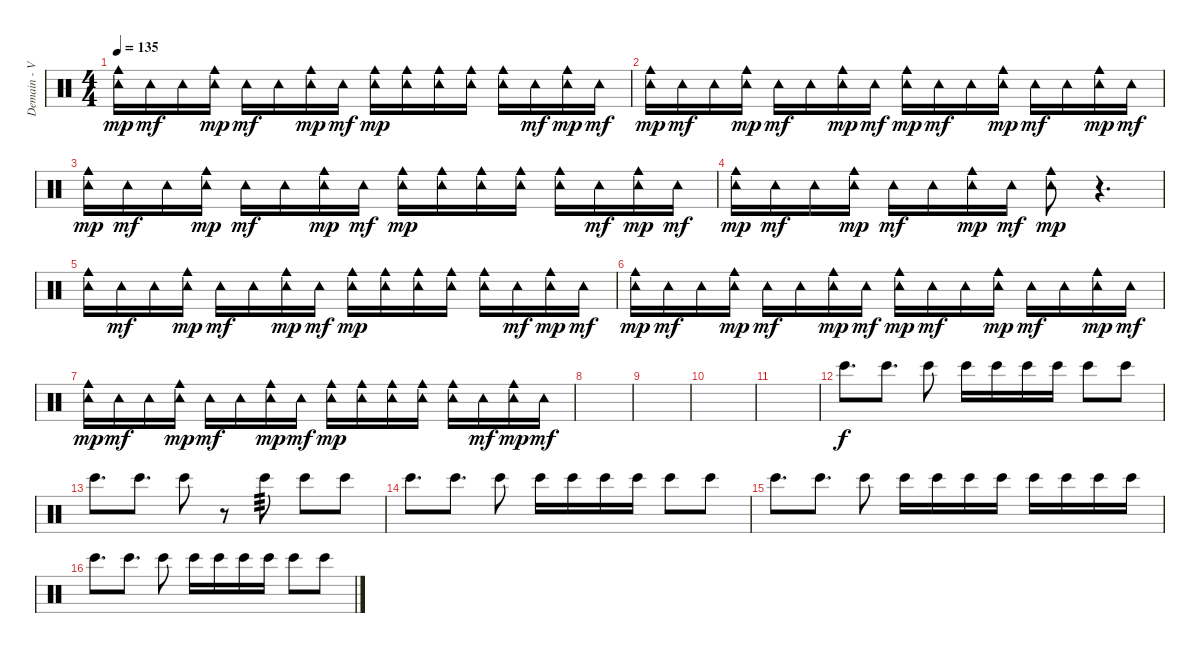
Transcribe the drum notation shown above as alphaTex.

\track ("Demain - Various Perc." "Demain - V") {instrument percussion}
\staff {score}
\articulation defaults
\ts (4 4)
\tempo 135
\clef neutral
\ks c
("Tambourine (hit)" "Cowbell medium (hit)").16{dy mp} "Tambourine (hit)".16{dy mf} "Tambourine (hit)".16 ("Tambourine (hit)" "Cowbell medium (hit)").16{dy mp} "Tambourine (hit)".16{dy mf} "Tambourine (hit)".16 ("Tambourine (hit)" "Cowbell medium (hit)").16{dy mp} "Tambourine (hit)".16{dy mf} ("Tambourine (hit)" "Cowbell medium (hit)").16{dy mp} ("Tambourine (hit)" "Cowbell medium (hit)").16 ("Tambourine (hit)" "Cowbell medium (hit)").16 ("Tambourine (hit)" "Cowbell medium (hit)").16 ("Tambourine (hit)" "Cowbell medium (hit)").16 "Tambourine (hit)".16{dy mf} ("Tambourine (hit)" "Cowbell medium (hit)").16{dy mp} "Tambourine (hit)".16{dy mf} |
("Tambourine (hit)" "Cowbell medium (hit)").16{dy mp} "Tambourine (hit)".16{dy mf} "Tambourine (hit)".16 ("Tambourine (hit)" "Cowbell medium (hit)").16{dy mp} "Tambourine (hit)".16{dy mf} "Tambourine (hit)".16 ("Tambourine (hit)" "Cowbell medium (hit)").16{dy mp} "Tambourine (hit)".16{dy mf} ("Tambourine (hit)" "Cowbell medium (hit)").16{dy mp} "Tambourine (hit)".16{dy mf} "Tambourine (hit)".16 ("Tambourine (hit)" "Cowbell medium (hit)").16{dy mp} "Tambourine (hit)".16{dy mf} "Tambourine (hit)".16 ("Tambourine (hit)" "Cowbell medium (hit)").16{dy mp} "Tambourine (hit)".16{dy mf} |
("Tambourine (hit)" "Cowbell medium (hit)").16{dy mp} "Tambourine (hit)".16{dy mf} "Tambourine (hit)".16 ("Tambourine (hit)" "Cowbell medium (hit)").16{dy mp} "Tambourine (hit)".16{dy mf} "Tambourine (hit)".16 ("Tambourine (hit)" "Cowbell medium (hit)").16{dy mp} "Tambourine (hit)".16{dy mf} ("Tambourine (hit)" "Cowbell medium (hit)").16{dy mp} ("Tambourine (hit)" "Cowbell medium (hit)").16 ("Tambourine (hit)" "Cowbell medium (hit)").16 ("Tambourine (hit)" "Cowbell medium (hit)").16 ("Tambourine (hit)" "Cowbell medium (hit)").16 "Tambourine (hit)".16{dy mf} ("Tambourine (hit)" "Cowbell medium (hit)").16{dy mp} "Tambourine (hit)".16{dy mf} |
("Tambourine (hit)" "Cowbell medium (hit)").16{dy mp} "Tambourine (hit)".16{dy mf} "Tambourine (hit)".16 ("Tambourine (hit)" "Cowbell medium (hit)").16{dy mp} "Tambourine (hit)".16{dy mf} "Tambourine (hit)".16 ("Tambourine (hit)" "Cowbell medium (hit)").16{dy mp} "Tambourine (hit)".16{dy mf} ("Tambourine (hit)" "Cowbell medium (hit)").8{dy mp} r.4{d} |
("Tambourine (hit)" "Cowbell medium (hit)").16 "Tambourine (hit)".16{dy mf} "Tambourine (hit)".16 ("Tambourine (hit)" "Cowbell medium (hit)").16{dy mp} "Tambourine (hit)".16{dy mf} "Tambourine (hit)".16 ("Tambourine (hit)" "Cowbell medium (hit)").16{dy mp} "Tambourine (hit)".16{dy mf} ("Tambourine (hit)" "Cowbell medium (hit)").16{dy mp} ("Tambourine (hit)" "Cowbell medium (hit)").16 ("Tambourine (hit)" "Cowbell medium (hit)").16 ("Tambourine (hit)" "Cowbell medium (hit)").16 ("Tambourine (hit)" "Cowbell medium (hit)").16 "Tambourine (hit)".16{dy mf} ("Tambourine (hit)" "Cowbell medium (hit)").16{dy mp} "Tambourine (hit)".16{dy mf} |
("Tambourine (hit)" "Cowbell medium (hit)").16{dy mp} "Tambourine (hit)".16{dy mf} "Tambourine (hit)".16 ("Tambourine (hit)" "Cowbell medium (hit)").16{dy mp} "Tambourine (hit)".16{dy mf} "Tambourine (hit)".16 ("Tambourine (hit)" "Cowbell medium (hit)").16{dy mp} "Tambourine (hit)".16{dy mf} ("Tambourine (hit)" "Cowbell medium (hit)").16{dy mp} "Tambourine (hit)".16{dy mf} "Tambourine (hit)".16 ("Tambourine (hit)" "Cowbell medium (hit)").16{dy mp} "Tambourine (hit)".16{dy mf} "Tambourine (hit)".16 ("Tambourine (hit)" "Cowbell medium (hit)").16{dy mp} "Tambourine (hit)".16{dy mf} |
("Tambourine (hit)" "Cowbell medium (hit)").16{dy mp} "Tambourine (hit)".16{dy mf} "Tambourine (hit)".16 ("Tambourine (hit)" "Cowbell medium (hit)").16{dy mp} "Tambourine (hit)".16{dy mf} "Tambourine (hit)".16 ("Tambourine (hit)" "Cowbell medium (hit)").16{dy mp} "Tambourine (hit)".16{dy mf} ("Tambourine (hit)" "Cowbell medium (hit)").16{dy mp} ("Tambourine (hit)" "Cowbell medium (hit)").16 ("Tambourine (hit)" "Cowbell medium (hit)").16 ("Tambourine (hit)" "Cowbell medium (hit)").16 ("Tambourine (hit)" "Cowbell medium (hit)").16 "Tambourine (hit)".16{dy mf} ("Tambourine (hit)" "Cowbell medium (hit)").16{dy mp} "Tambourine (hit)".16{dy mf} |
|
|
|
|
"Bongo High (hit)".8{d dy f} "Bongo High (hit)".8{d} "Bongo High (hit)".8 "Bongo High (hit)".16 "Bongo High (hit)".16 "Bongo High (hit)".16 "Bongo High (hit)".16 "Bongo High (hit)".8 "Bongo High (hit)".8 |
"Bongo High (hit)".8{d} "Bongo High (hit)".8{d} "Bongo High (hit)".8 r.8 "Bongo High (hit)".8{tp 3} "Bongo High (hit)".8 "Bongo High (hit)".8 |
"Bongo High (hit)".8{d} "Bongo High (hit)".8{d} "Bongo High (hit)".8 "Bongo High (hit)".16 "Bongo High (hit)".16 "Bongo High (hit)".16 "Bongo High (hit)".16 "Bongo High (hit)".8 "Bongo High (hit)".8 |
"Bongo High (hit)".8{d} "Bongo High (hit)".8{d} "Bongo High (hit)".8 "Bongo High (hit)".16 "Bongo High (hit)".16 "Bongo High (hit)".16 "Bongo High (hit)".16 "Bongo High (hit)".16 "Bongo High (hit)".16 "Bongo High (hit)".16 "Bongo High (hit)".16 |
"Bongo High (hit)".8{d} "Bongo High (hit)".8{d} "Bongo High (hit)".8 "Bongo High (hit)".16 "Bongo High (hit)".16 "Bongo High (hit)".16 "Bongo High (hit)".16 "Bongo High (hit)".8 "Bongo High (hit)".8
